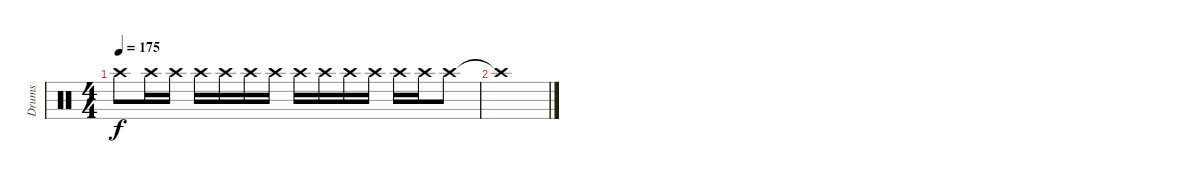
\track ("Drums" "Drums") {instrument percussion}
\staff {score}
\articulation defaults
\ts (4 4)
\tempo 175
\clef neutral
\ks c "Crash high (hit)".8{dy f} "Crash high (hit)".16 "Crash high (hit)".16 "Crash high (hit)".16 "Crash high (hit)".16 "Crash high (hit)".16 "Crash high (hit)".16 "Crash high (hit)".16 "Crash high (hit)".16 "Crash high (hit)".16 "Crash high (hit)".16 "Crash high (hit)".16 "Crash high (hit)".16 "Crash high (hit)".8
|
"Crash high (hit)"{t}.1
